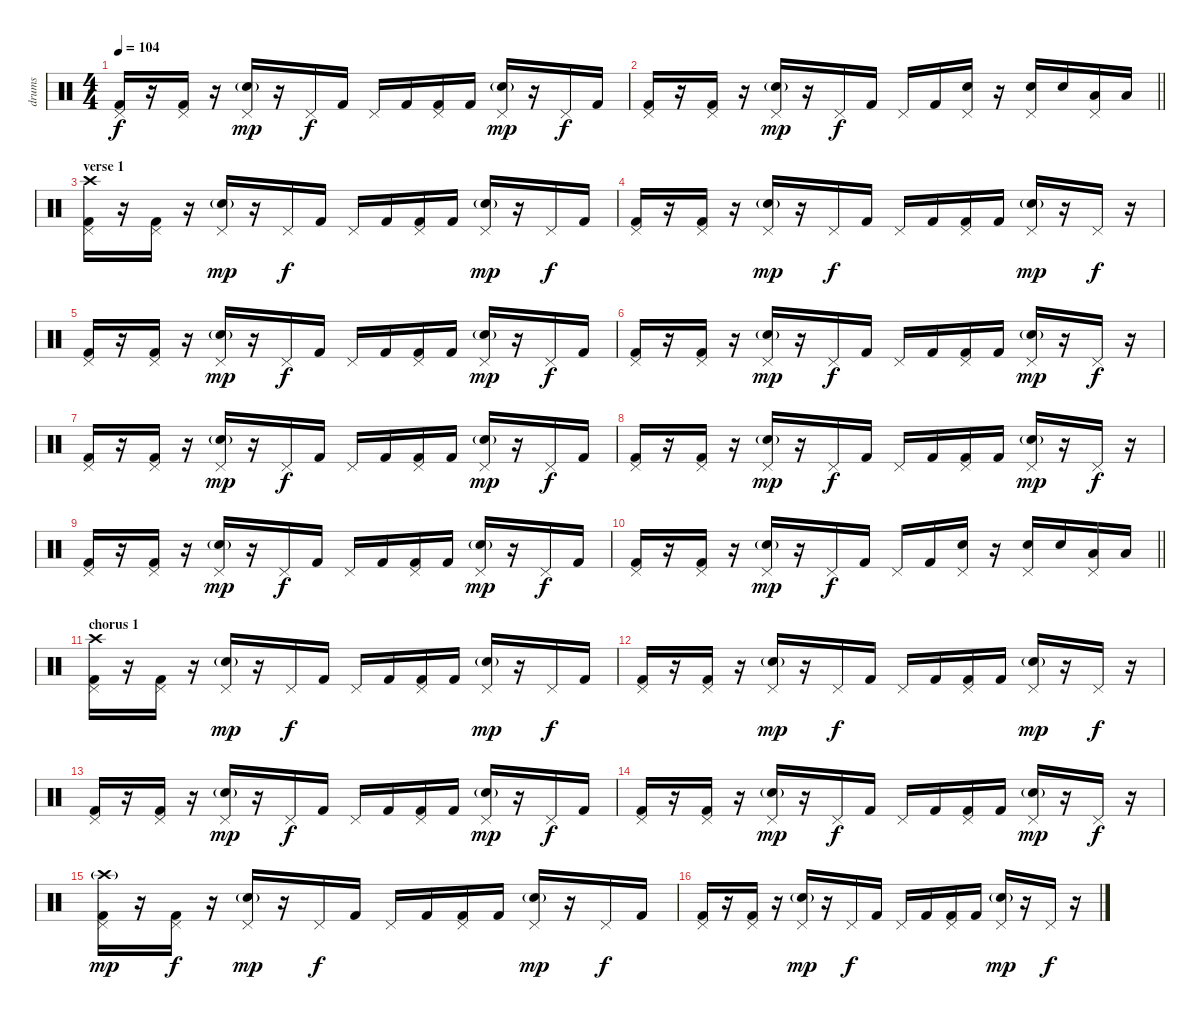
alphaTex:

\track ("drums" "drums") {instrument percussion}
\staff {score}
\articulation defaults
\ts (4 4)
\tempo 104
\clef neutral
\ks c
("Kick (hit) 2" "Pedal Hi-Hat (hit)").16{dy f} r.16 ("Kick (hit) 2" "Pedal Hi-Hat (hit)").16 r.16 ("Snare (hit) 2"{g} "Pedal Hi-Hat (hit)").16{dy mp} r.16 "Pedal Hi-Hat (hit)".16{dy f} "Kick (hit) 2".16 "Pedal Hi-Hat (hit)".16 "Kick (hit) 2".16 ("Kick (hit) 2" "Pedal Hi-Hat (hit)").16 "Kick (hit) 2".16 ("Snare (hit) 2"{g} "Pedal Hi-Hat (hit)").16{dy mp} r.16 "Pedal Hi-Hat (hit)".16{dy f} "Kick (hit) 2".16 |
\barLineRight lightlight
("Kick (hit) 2" "Pedal Hi-Hat (hit)").16 r.16 ("Kick (hit) 2" "Pedal Hi-Hat (hit)").16 r.16 ("Snare (hit) 2"{g} "Pedal Hi-Hat (hit)").16{dy mp} r.16 "Pedal Hi-Hat (hit)".16{dy f} "Kick (hit) 2".16 "Pedal Hi-Hat (hit)".16 "Kick (hit) 2".16 ("Snare (hit) 2" "Pedal Hi-Hat (hit)").16 r.16 ("Snare (hit) 2" "Pedal Hi-Hat (hit)").16 "Snare (hit) 2".16 ("Low Tom (hit)" "Pedal Hi-Hat (hit)").16 "Low Tom (hit)".16 |
\section ("" "verse 1")
("Kick (hit) 2" "Pedal Hi-Hat (hit)" "Crash high (hit)").16 r.16 ("Kick (hit) 2" "Pedal Hi-Hat (hit)").16 r.16 ("Snare (hit) 2"{g} "Pedal Hi-Hat (hit)").16{dy mp} r.16 "Pedal Hi-Hat (hit)".16{dy f} "Kick (hit) 2".16 "Pedal Hi-Hat (hit)".16 "Kick (hit) 2".16 ("Kick (hit) 2" "Pedal Hi-Hat (hit)").16 "Kick (hit) 2".16 ("Snare (hit) 2"{g} "Pedal Hi-Hat (hit)").16{dy mp} r.16 "Pedal Hi-Hat (hit)".16{dy f} "Kick (hit) 2".16 |
("Kick (hit) 2" "Pedal Hi-Hat (hit)").16 r.16 ("Kick (hit) 2" "Pedal Hi-Hat (hit)").16 r.16 ("Snare (hit) 2"{g} "Pedal Hi-Hat (hit)").16{dy mp} r.16 "Pedal Hi-Hat (hit)".16{dy f} "Kick (hit) 2".16 "Pedal Hi-Hat (hit)".16 "Kick (hit) 2".16 ("Kick (hit) 2" "Pedal Hi-Hat (hit)").16 "Kick (hit) 2".16 ("Snare (hit) 2"{g} "Pedal Hi-Hat (hit)").16{dy mp} r.16 "Pedal Hi-Hat (hit)".16{dy f} r.16 |
("Kick (hit) 2" "Pedal Hi-Hat (hit)").16 r.16 ("Kick (hit) 2" "Pedal Hi-Hat (hit)").16 r.16 ("Snare (hit) 2"{g} "Pedal Hi-Hat (hit)").16{dy mp} r.16 "Pedal Hi-Hat (hit)".16{dy f} "Kick (hit) 2".16 "Pedal Hi-Hat (hit)".16 "Kick (hit) 2".16 ("Kick (hit) 2" "Pedal Hi-Hat (hit)").16 "Kick (hit) 2".16 ("Snare (hit) 2"{g} "Pedal Hi-Hat (hit)").16{dy mp} r.16 "Pedal Hi-Hat (hit)".16{dy f} "Kick (hit) 2".16 |
("Kick (hit) 2" "Pedal Hi-Hat (hit)").16 r.16 ("Kick (hit) 2" "Pedal Hi-Hat (hit)").16 r.16 ("Snare (hit) 2"{g} "Pedal Hi-Hat (hit)").16{dy mp} r.16 "Pedal Hi-Hat (hit)".16{dy f} "Kick (hit) 2".16 "Pedal Hi-Hat (hit)".16 "Kick (hit) 2".16 ("Kick (hit) 2" "Pedal Hi-Hat (hit)").16 "Kick (hit) 2".16 ("Snare (hit) 2"{g} "Pedal Hi-Hat (hit)").16{dy mp} r.16 "Pedal Hi-Hat (hit)".16{dy f} r.16 |
("Kick (hit) 2" "Pedal Hi-Hat (hit)").16 r.16 ("Kick (hit) 2" "Pedal Hi-Hat (hit)").16 r.16 ("Snare (hit) 2"{g} "Pedal Hi-Hat (hit)").16{dy mp} r.16 "Pedal Hi-Hat (hit)".16{dy f} "Kick (hit) 2".16 "Pedal Hi-Hat (hit)".16 "Kick (hit) 2".16 ("Kick (hit) 2" "Pedal Hi-Hat (hit)").16 "Kick (hit) 2".16 ("Snare (hit) 2"{g} "Pedal Hi-Hat (hit)").16{dy mp} r.16 "Pedal Hi-Hat (hit)".16{dy f} "Kick (hit) 2".16 |
("Kick (hit) 2" "Pedal Hi-Hat (hit)").16 r.16 ("Kick (hit) 2" "Pedal Hi-Hat (hit)").16 r.16 ("Snare (hit) 2"{g} "Pedal Hi-Hat (hit)").16{dy mp} r.16 "Pedal Hi-Hat (hit)".16{dy f} "Kick (hit) 2".16 "Pedal Hi-Hat (hit)".16 "Kick (hit) 2".16 ("Kick (hit) 2" "Pedal Hi-Hat (hit)").16 "Kick (hit) 2".16 ("Snare (hit) 2"{g} "Pedal Hi-Hat (hit)").16{dy mp} r.16 "Pedal Hi-Hat (hit)".16{dy f} r.16 |
("Kick (hit) 2" "Pedal Hi-Hat (hit)").16 r.16 ("Kick (hit) 2" "Pedal Hi-Hat (hit)").16 r.16 ("Snare (hit) 2"{g} "Pedal Hi-Hat (hit)").16{dy mp} r.16 "Pedal Hi-Hat (hit)".16{dy f} "Kick (hit) 2".16 "Pedal Hi-Hat (hit)".16 "Kick (hit) 2".16 ("Kick (hit) 2" "Pedal Hi-Hat (hit)").16 "Kick (hit) 2".16 ("Snare (hit) 2"{g} "Pedal Hi-Hat (hit)").16{dy mp} r.16 "Pedal Hi-Hat (hit)".16{dy f} "Kick (hit) 2".16 |
\barLineRight lightlight
("Kick (hit) 2" "Pedal Hi-Hat (hit)").16 r.16 ("Kick (hit) 2" "Pedal Hi-Hat (hit)").16 r.16 ("Snare (hit) 2"{g} "Pedal Hi-Hat (hit)").16{dy mp} r.16 "Pedal Hi-Hat (hit)".16{dy f} "Kick (hit) 2".16 "Pedal Hi-Hat (hit)".16 "Kick (hit) 2".16 ("Snare (hit) 2" "Pedal Hi-Hat (hit)").16 r.16 ("Snare (hit) 2" "Pedal Hi-Hat (hit)").16 "Snare (hit) 2".16 ("Low Tom (hit)" "Pedal Hi-Hat (hit)").16 "Low Tom (hit)".16 |
\section ("" "chorus 1")
("Kick (hit) 2" "Pedal Hi-Hat (hit)" "Crash high (hit)").16 r.16 ("Kick (hit) 2" "Pedal Hi-Hat (hit)").16 r.16 ("Snare (hit) 2"{g} "Pedal Hi-Hat (hit)").16{dy mp} r.16 "Pedal Hi-Hat (hit)".16{dy f} "Kick (hit) 2".16 "Pedal Hi-Hat (hit)".16 "Kick (hit) 2".16 ("Kick (hit) 2" "Pedal Hi-Hat (hit)").16 "Kick (hit) 2".16 ("Snare (hit) 2"{g} "Pedal Hi-Hat (hit)").16{dy mp} r.16 "Pedal Hi-Hat (hit)".16{dy f} "Kick (hit) 2".16 |
("Kick (hit) 2" "Pedal Hi-Hat (hit)").16 r.16 ("Kick (hit) 2" "Pedal Hi-Hat (hit)").16 r.16 ("Snare (hit) 2"{g} "Pedal Hi-Hat (hit)").16{dy mp} r.16 "Pedal Hi-Hat (hit)".16{dy f} "Kick (hit) 2".16 "Pedal Hi-Hat (hit)".16 "Kick (hit) 2".16 ("Kick (hit) 2" "Pedal Hi-Hat (hit)").16 "Kick (hit) 2".16 ("Snare (hit) 2"{g} "Pedal Hi-Hat (hit)").16{dy mp} r.16 "Pedal Hi-Hat (hit)".16{dy f} r.16 |
("Kick (hit) 2" "Pedal Hi-Hat (hit)").16 r.16 ("Kick (hit) 2" "Pedal Hi-Hat (hit)").16 r.16 ("Snare (hit) 2"{g} "Pedal Hi-Hat (hit)").16{dy mp} r.16 "Pedal Hi-Hat (hit)".16{dy f} "Kick (hit) 2".16 "Pedal Hi-Hat (hit)".16 "Kick (hit) 2".16 ("Kick (hit) 2" "Pedal Hi-Hat (hit)").16 "Kick (hit) 2".16 ("Snare (hit) 2"{g} "Pedal Hi-Hat (hit)").16{dy mp} r.16 "Pedal Hi-Hat (hit)".16{dy f} "Kick (hit) 2".16 |
("Kick (hit) 2" "Pedal Hi-Hat (hit)").16 r.16 ("Kick (hit) 2" "Pedal Hi-Hat (hit)").16 r.16 ("Snare (hit) 2"{g} "Pedal Hi-Hat (hit)").16{dy mp} r.16 "Pedal Hi-Hat (hit)".16{dy f} "Kick (hit) 2".16 "Pedal Hi-Hat (hit)".16 "Kick (hit) 2".16 ("Kick (hit) 2" "Pedal Hi-Hat (hit)").16 "Kick (hit) 2".16 ("Snare (hit) 2"{g} "Pedal Hi-Hat (hit)").16{dy mp} r.16 "Pedal Hi-Hat (hit)".16{dy f} r.16 |
("Kick (hit) 2" "Pedal Hi-Hat (hit)" "Crash high (hit)"{g}).16{dy mp} r.16 ("Kick (hit) 2" "Pedal Hi-Hat (hit)").16{dy f} r.16 ("Snare (hit) 2"{g} "Pedal Hi-Hat (hit)").16{dy mp} r.16 "Pedal Hi-Hat (hit)".16{dy f} "Kick (hit) 2".16 "Pedal Hi-Hat (hit)".16 "Kick (hit) 2".16 ("Kick (hit) 2" "Pedal Hi-Hat (hit)").16 "Kick (hit) 2".16 ("Snare (hit) 2"{g} "Pedal Hi-Hat (hit)").16{dy mp} r.16 "Pedal Hi-Hat (hit)".16{dy f} "Kick (hit) 2".16 |
("Kick (hit) 2" "Pedal Hi-Hat (hit)").16 r.16 ("Kick (hit) 2" "Pedal Hi-Hat (hit)").16 r.16 ("Snare (hit) 2"{g} "Pedal Hi-Hat (hit)").16{dy mp} r.16 "Pedal Hi-Hat (hit)".16{dy f} "Kick (hit) 2".16 "Pedal Hi-Hat (hit)".16 "Kick (hit) 2".16 ("Kick (hit) 2" "Pedal Hi-Hat (hit)").16 "Kick (hit) 2".16 ("Snare (hit) 2"{g} "Pedal Hi-Hat (hit)").16{dy mp} r.16 "Pedal Hi-Hat (hit)".16{dy f} r.16
